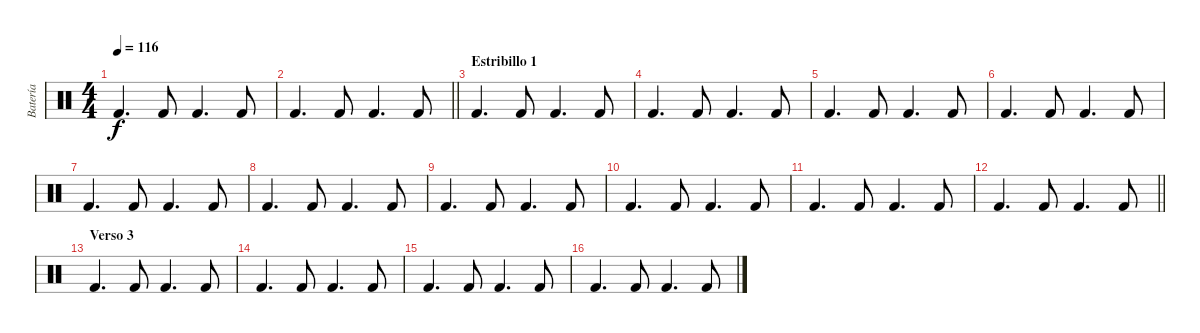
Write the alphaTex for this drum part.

\track ("Batería" "Batería") {instrument percussion}
\staff {score}
\articulation defaults
\ts (4 4)
\tempo 116
\clef neutral
\ks c "Kick (hit) 2".4{d dy f} "Kick (hit) 2".8 "Kick (hit) 2".4{d} "Kick (hit) 2".8
|
\barLineRight lightlight "Kick (hit) 2".4{d} "Kick (hit) 2".8 "Kick (hit) 2".4{d} "Kick (hit) 2".8
|
\section ("" "Estribillo 1")
"Kick (hit) 2".4{d} "Kick (hit) 2".8 "Kick (hit) 2".4{d} "Kick (hit) 2".8 |
"Kick (hit) 2".4{d} "Kick (hit) 2".8 "Kick (hit) 2".4{d} "Kick (hit) 2".8 |
"Kick (hit) 2".4{d} "Kick (hit) 2".8 "Kick (hit) 2".4{d} "Kick (hit) 2".8 |
"Kick (hit) 2".4{d} "Kick (hit) 2".8 "Kick (hit) 2".4{d} "Kick (hit) 2".8 |
"Kick (hit) 2".4{d} "Kick (hit) 2".8 "Kick (hit) 2".4{d} "Kick (hit) 2".8 |
"Kick (hit) 2".4{d} "Kick (hit) 2".8 "Kick (hit) 2".4{d} "Kick (hit) 2".8 |
"Kick (hit) 2".4{d} "Kick (hit) 2".8 "Kick (hit) 2".4{d} "Kick (hit) 2".8 |
"Kick (hit) 2".4{d} "Kick (hit) 2".8 "Kick (hit) 2".4{d} "Kick (hit) 2".8 |
"Kick (hit) 2".4{d} "Kick (hit) 2".8 "Kick (hit) 2".4{d} "Kick (hit) 2".8 |
\barLineRight lightlight "Kick (hit) 2".4{d} "Kick (hit) 2".8 "Kick (hit) 2".4{d} "Kick (hit) 2".8
|
\section ("" "Verso 3")
"Kick (hit) 2".4{d} "Kick (hit) 2".8 "Kick (hit) 2".4{d} "Kick (hit) 2".8 |
"Kick (hit) 2".4{d} "Kick (hit) 2".8 "Kick (hit) 2".4{d} "Kick (hit) 2".8 |
"Kick (hit) 2".4{d} "Kick (hit) 2".8 "Kick (hit) 2".4{d} "Kick (hit) 2".8 |
"Kick (hit) 2".4{d} "Kick (hit) 2".8 "Kick (hit) 2".4{d} "Kick (hit) 2".8
